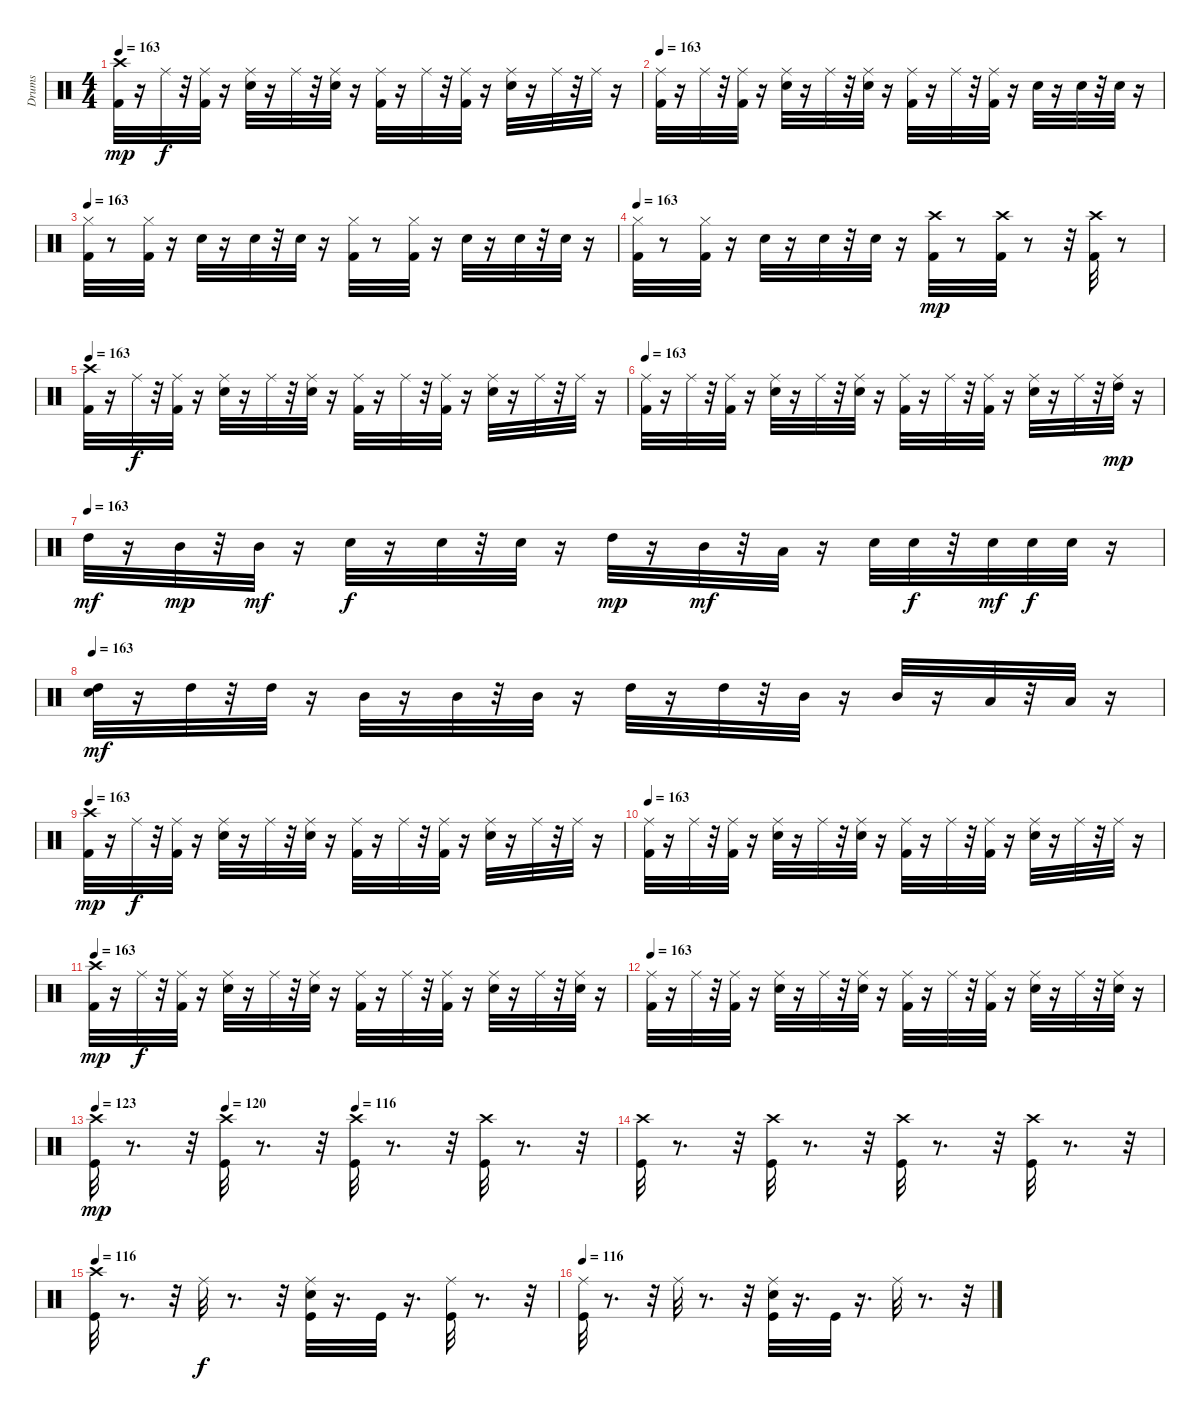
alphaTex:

\track ("Drums" "Drums") {instrument percussion}
\staff {score}
\articulation defaults
\ts (4 4)
\tempo 163
\clef neutral
\ks c
("Kick (hit) 2" "Crash high (hit)").32{dy mp} r.16 "Ride (middle)".32{dy f} r.32 ("Kick (hit) 2" "Ride (middle)").32 r.16 ("Snare (hit) 2" "Ride (middle)").32 r.16 "Ride (middle)".32 r.32 ("Snare (hit) 2" "Ride (middle)").32 r.16 ("Kick (hit) 2" "Ride (middle)").32 r.16 "Ride (middle)".32 r.32 ("Kick (hit) 2" "Ride (middle)").32 r.16 ("Snare (hit) 2" "Ride (middle)").32 r.16 "Ride (middle)".32 r.32 "Ride (middle)".32 r.16 |
\tempo 163
("Kick (hit) 2" "Ride (middle)").32 r.16 "Ride (middle)".32 r.32 ("Kick (hit) 2" "Ride (middle)").32 r.16 ("Snare (hit) 2" "Ride (middle)").32 r.16 "Ride (middle)".32 r.32 ("Snare (hit) 2" "Ride (middle)").32 r.16 ("Kick (hit) 2" "Ride (middle)").32 r.16 "Ride (middle)".32 r.32 ("Kick (hit) 2" "Ride (middle)").32 r.16 "Snare (hit) 2".32 r.16 "Snare (hit) 2".32 r.32 "Snare (hit) 2".32 r.16 |
\tempo 163
("Kick (hit) 2" "Hi-Hat (closed)").32 r.8 ("Kick (hit) 2" "Hi-Hat (closed)").32 r.16 "Snare (hit) 2".32 r.16 "Snare (hit) 2".32 r.32 "Snare (hit) 2".32 r.16 ("Kick (hit) 2" "Hi-Hat (closed)").32 r.8 ("Kick (hit) 2" "Hi-Hat (closed)").32 r.16 "Snare (hit) 2".32 r.16 "Snare (hit) 2".32 r.32 "Snare (hit) 2".32 r.16 |
\tempo 163
("Kick (hit) 2" "Hi-Hat (closed)").32 r.8 ("Kick (hit) 2" "Hi-Hat (closed)").32 r.16 "Snare (hit) 2".32 r.16 "Snare (hit) 2".32 r.32 "Snare (hit) 2".32 r.16 ("Kick (hit) 2" "Crash high (hit)").32{dy mp} r.8 ("Kick (hit) 2" "Crash high (hit)").32 r.8 r.32 ("Kick (hit) 2" "Crash high (hit)").32 r.8 |
\tempo 163
("Kick (hit) 2" "Crash high (hit)").32 r.16 "Ride (middle)".32{dy f} r.32 ("Kick (hit) 2" "Ride (middle)").32 r.16 ("Snare (hit) 2" "Ride (middle)").32 r.16 "Ride (middle)".32 r.32 ("Snare (hit) 2" "Ride (middle)").32 r.16 ("Kick (hit) 2" "Ride (middle)").32 r.16 "Ride (middle)".32 r.32 ("Kick (hit) 2" "Ride (middle)").32 r.16 ("Snare (hit) 2" "Ride (middle)").32 r.16 "Ride (middle)".32 r.32 "Ride (middle)".32 r.16 |
\tempo 163
("Kick (hit) 2" "Ride (middle)").32 r.16 "Ride (middle)".32 r.32 ("Kick (hit) 2" "Ride (middle)").32 r.16 ("Snare (hit) 2" "Ride (middle)").32 r.16 "Ride (middle)".32 r.32 ("Snare (hit) 2" "Ride (middle)").32 r.16 ("Kick (hit) 2" "Ride (middle)").32 r.16 "Ride (middle)".32 r.32 ("Kick (hit) 2" "Ride (middle)").32 r.16 ("Snare (hit) 2" "Ride (middle)").32 r.16 "Ride (middle)".32 r.32 ("High Tom (hit)" "Ride (middle)").32{dy mp} r.16 |
\tempo (163)
"High Tom (hit)".32{dy mf} r.16 "Mid Tom (hit)".32{dy mp} r.32 "Mid Tom (hit)".32{dy mf} r.16 "Snare (hit) 2".32{dy f} r.16 "Snare (hit) 2".32 r.32 "Snare (hit) 2".32 r.16 "High Tom (hit)".32{dy mp} r.16 "Mid Tom (hit)".32{dy mf} r.32 "Low Tom (hit)".32 r.16 "Snare (hit) 2".32 "Snare (hit) 2".32{dy f} r.32 "Snare (hit) 2".32{dy mf} "Snare (hit) 2".32{dy f} "Snare (hit) 2".32 r.16 |
\tempo 163
("Snare (hit) 2" "High Tom (hit)").32{dy mf} r.16 "High Tom (hit)".32 r.32 "High Tom (hit)".32 r.16 "Mid Tom (hit)".32 r.16 "Mid Tom (hit)".32 r.32 "Mid Tom (hit)".32 r.16 "High Tom (hit)".32 r.16 "High Tom (hit)".32 r.32 "Mid Tom (hit)".32 r.16 "Mid Tom (hit)".32 r.16 "Low Tom (hit)".32 r.32 "Low Tom (hit)".32 r.16 |
\tempo 163
("Kick (hit) 2" "Crash high (hit)").32{dy mp} r.16 "Ride (middle)".32{dy f} r.32 ("Kick (hit) 2" "Ride (middle)").32 r.16 ("Snare (hit) 2" "Ride (middle)").32 r.16 "Ride (middle)".32 r.32 ("Snare (hit) 2" "Ride (middle)").32 r.16 ("Kick (hit) 2" "Ride (middle)").32 r.16 "Ride (middle)".32 r.32 ("Kick (hit) 2" "Ride (middle)").32 r.16 ("Snare (hit) 2" "Ride (middle)").32 r.16 "Ride (middle)".32 r.32 "Ride (middle)".32 r.16 |
\tempo 163
("Kick (hit) 2" "Ride (middle)").32 r.16 "Ride (middle)".32 r.32 ("Kick (hit) 2" "Ride (middle)").32 r.16 ("Snare (hit) 2" "Ride (middle)").32 r.16 "Ride (middle)".32 r.32 ("Snare (hit) 2" "Ride (middle)").32 r.16 ("Kick (hit) 2" "Ride (middle)").32 r.16 "Ride (middle)".32 r.32 ("Kick (hit) 2" "Ride (middle)").32 r.16 ("Snare (hit) 2" "Ride (middle)").32 r.16 "Ride (middle)".32 r.32 "Ride (middle)".32 r.16 |
\tempo 163
("Kick (hit) 2" "Crash high (hit)").32{dy mp} r.16 "Ride (middle)".32{dy f} r.32 ("Kick (hit) 2" "Ride (middle)").32 r.16 ("Snare (hit) 2" "Ride (middle)").32 r.16 "Ride (middle)".32 r.32 ("Snare (hit) 2" "Ride (middle)").32 r.16 ("Kick (hit) 2" "Ride (middle)").32 r.16 "Ride (middle)".32 r.32 ("Kick (hit) 2" "Ride (middle)").32 r.16 ("Snare (hit) 2" "Ride (middle)").32 r.16 "Ride (middle)".32 r.32 ("Snare (hit) 2" "Ride (middle)").32 r.16 |
\tempo 163
("Kick (hit) 2" "Ride (middle)").32 r.16 "Ride (middle)".32 r.32 ("Kick (hit) 2" "Ride (middle)").32 r.16 ("Snare (hit) 2" "Ride (middle)").32 r.16 "Ride (middle)".32 r.32 ("Snare (hit) 2" "Ride (middle)").32 r.16 ("Kick (hit) 2" "Ride (middle)").32 r.16 "Ride (middle)".32 r.32 ("Kick (hit) 2" "Ride (middle)").32 r.16 ("Snare (hit) 2" "Ride (middle)").32 r.16 "Ride (middle)".32 r.32 ("Snare (hit) 2" "Ride (middle)").32 r.16 |
\tempo 123
\tempo (120 0.25)
\tempo (116 0.5)
("Kick (hit)" "Crash high (hit)").32{dy mp} r.8{d} r.32 ("Kick (hit)" "Crash high (hit)").32 r.8{d} r.32 ("Kick (hit)" "Crash high (hit)").32 r.8{d} r.32 ("Kick (hit)" "Crash high (hit)").32 r.8{d} r.32 |
("Kick (hit)" "Crash high (hit)").32 r.8{d} r.32 ("Kick (hit)" "Crash high (hit)").32 r.8{d} r.32 ("Kick (hit)" "Crash high (hit)").32 r.8{d} r.32 ("Kick (hit)" "Crash high (hit)").32 r.8{d} r.32 |
\tempo 116
("Kick (hit)" "Crash high (hit)").32 r.8{d} r.32 "Ride (middle)".32{dy f} r.8{d} r.32 ("Kick (hit)" "Snare (hit) 2" "Ride (middle)").32 r.16{d} "Kick (hit)".32 r.16{d} ("Kick (hit)" "Ride (middle)").32 r.8{d} r.32 |
\tempo 116
("Kick (hit)" "Ride (middle)").32 r.8{d} r.32 "Ride (middle)".32 r.8{d} r.32 ("Kick (hit)" "Snare (hit) 2" "Ride (middle)").32 r.16{d} "Kick (hit)".32 r.16{d} "Ride (middle)".32 r.8{d} r.32
